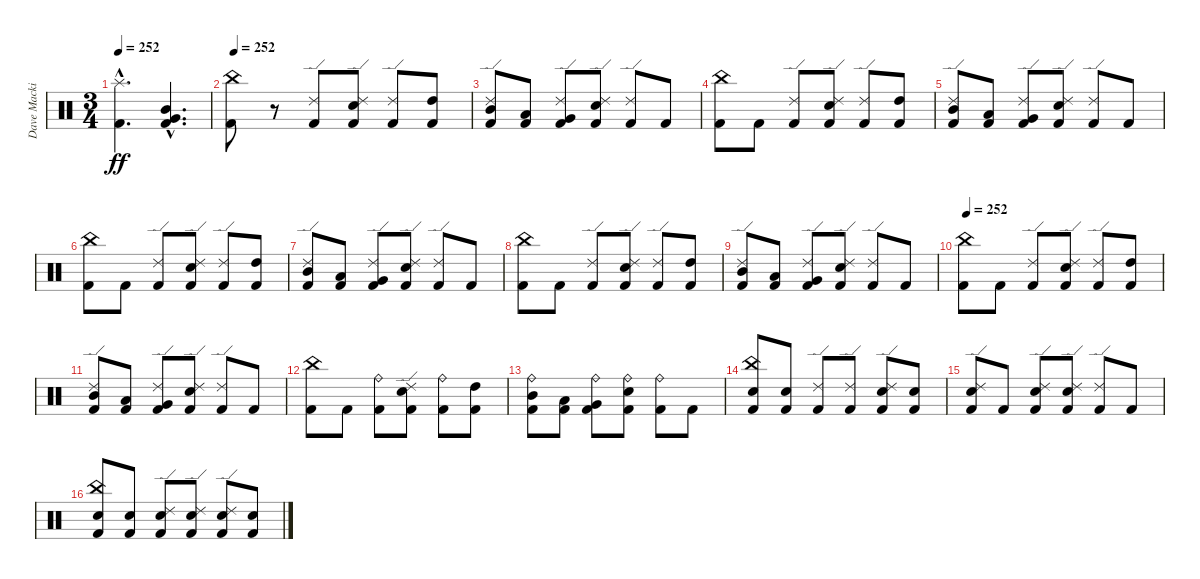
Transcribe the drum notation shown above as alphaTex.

\track ("Dave Mackintosh" "Dave Macki") {instrument percussion}
\staff {score}
\articulation defaults
\ts (3 4)
\tempo 252
\clef neutral
\ks c
("Splash (hit)"{hac} "Kick (hit) 2"{hac}).4{d dy ff} ("Mid Tom (hit)"{hac} "Very Low Tom (hit)"{hac} "Kick (hit) 2"{hac}).4{d} |
\tempo 252
("China (hit)" "Kick (hit) 2").8 r.8 ("Ride (edge) 2" "Kick (hit) 2").8 ("Ride (edge) 2" "Electric Snare (hit)" "Kick (hit) 2").8 ("Ride (edge) 2" "Kick (hit) 2").8 ("High Tom (hit)" "Kick (hit) 2").8 |
("Ride (edge) 2" "Mid Tom (hit)" "Kick (hit) 2").8 ("Low Tom (hit)" "Kick (hit) 2").8 ("Ride (edge) 2" "Very Low Tom (hit)" "Kick (hit) 2").8 ("Ride (edge) 2" "Electric Snare (hit)" "Kick (hit) 2").8 ("Ride (edge) 2" "Kick (hit) 2").8 "Kick (hit) 2".8 |
("China (hit)" "Kick (hit) 2").8 "Kick (hit) 2".8 ("Ride (edge) 2" "Kick (hit) 2").8 ("Ride (edge) 2" "Electric Snare (hit)" "Kick (hit) 2").8 ("Ride (edge) 2" "Kick (hit) 2").8 ("High Tom (hit)" "Kick (hit) 2").8 |
("Ride (edge) 2" "Mid Tom (hit)" "Kick (hit) 2").8 ("Low Tom (hit)" "Kick (hit) 2").8 ("Ride (edge) 2" "Very Low Tom (hit)" "Kick (hit) 2").8 ("Ride (edge) 2" "Electric Snare (hit)" "Kick (hit) 2").8 ("Ride (edge) 2" "Kick (hit) 2").8 "Kick (hit) 2".8 |
("China (hit)" "Kick (hit) 2").8 "Kick (hit) 2".8 ("Ride (edge) 2" "Kick (hit) 2").8 ("Ride (edge) 2" "Electric Snare (hit)" "Kick (hit) 2").8 ("Ride (edge) 2" "Kick (hit) 2").8 ("High Tom (hit)" "Kick (hit) 2").8 |
("Ride (edge) 2" "Mid Tom (hit)" "Kick (hit) 2").8 ("Low Tom (hit)" "Kick (hit) 2").8 ("Ride (edge) 2" "Very Low Tom (hit)" "Kick (hit) 2").8 ("Ride (edge) 2" "Electric Snare (hit)" "Kick (hit) 2").8 ("Ride (edge) 2" "Kick (hit) 2").8 "Kick (hit) 2".8 |
("China (hit)" "Kick (hit) 2").8 "Kick (hit) 2".8 ("Ride (edge) 2" "Kick (hit) 2").8 ("Ride (edge) 2" "Electric Snare (hit)" "Kick (hit) 2").8 ("Ride (edge) 2" "Kick (hit) 2").8 ("High Tom (hit)" "Kick (hit) 2").8 |
("Ride (edge) 2" "Mid Tom (hit)" "Kick (hit) 2").8 ("Low Tom (hit)" "Kick (hit) 2").8 ("Ride (edge) 2" "Very Low Tom (hit)" "Kick (hit) 2").8 ("Ride (edge) 2" "Electric Snare (hit)" "Kick (hit) 2").8 ("Ride (edge) 2" "Kick (hit) 2").8 "Kick (hit) 2".8 |
\tempo 252
("China (hit)" "Kick (hit) 2").8 "Kick (hit) 2".8 ("Ride (edge) 2" "Kick (hit) 2").8 ("Ride (edge) 2" "Electric Snare (hit)" "Kick (hit) 2").8 ("Ride (edge) 2" "Kick (hit) 2").8 ("High Tom (hit)" "Kick (hit) 2").8 |
("Ride (edge) 2" "Mid Tom (hit)" "Kick (hit) 2").8 ("Low Tom (hit)" "Kick (hit) 2").8 ("Ride (edge) 2" "Very Low Tom (hit)" "Kick (hit) 2").8 ("Ride (edge) 2" "Electric Snare (hit)" "Kick (hit) 2").8 ("Ride (edge) 2" "Kick (hit) 2").8 "Kick (hit) 2".8 |
("China (hit)" "Kick (hit) 2").8 "Kick (hit) 2".8 ("Ride (bell)" "Kick (hit) 2").8 ("Ride (edge) 2" "Electric Snare (hit)" "Kick (hit) 2").8 ("Ride (bell)" "Kick (hit) 2").8 ("High Tom (hit)" "Kick (hit) 2").8 |
("Ride (bell)" "Mid Tom (hit)" "Kick (hit) 2").8 ("Low Tom (hit)" "Kick (hit) 2").8 ("Ride (bell)" "Very Low Tom (hit)" "Kick (hit) 2").8 ("Ride (bell)" "Electric Snare (hit)" "Kick (hit) 2").8 ("Ride (bell)" "Kick (hit) 2").8 "Kick (hit) 2".8 |
("China (hit)" "Electric Snare (hit)" "Kick (hit) 2").8 ("Electric Snare (hit)" "Kick (hit) 2").8 ("Ride (edge) 2" "Kick (hit) 2").8 ("Ride (edge) 2" "Kick (hit) 2").8 ("Ride (edge) 2" "Electric Snare (hit)" "Kick (hit) 2").8 ("Electric Snare (hit)" "Kick (hit) 2").8 |
("Ride (edge) 2" "Electric Snare (hit)" "Kick (hit) 2").8 "Kick (hit) 2".8 ("Ride (edge) 2" "Electric Snare (hit)" "Kick (hit) 2").8 ("Ride (edge) 2" "Electric Snare (hit)" "Kick (hit) 2").8 ("Ride (edge) 2" "Kick (hit) 2").8 "Kick (hit) 2".8 |
("China (hit)" "Electric Snare (hit)" "Kick (hit) 2").8 ("Electric Snare (hit)" "Kick (hit) 2").8 ("Ride (edge) 2" "Electric Snare (hit)" "Kick (hit) 2").8 ("Ride (edge) 2" "Electric Snare (hit)" "Kick (hit) 2").8 ("Ride (edge) 2" "Electric Snare (hit)" "Kick (hit) 2").8 ("Electric Snare (hit)" "Kick (hit) 2").8
